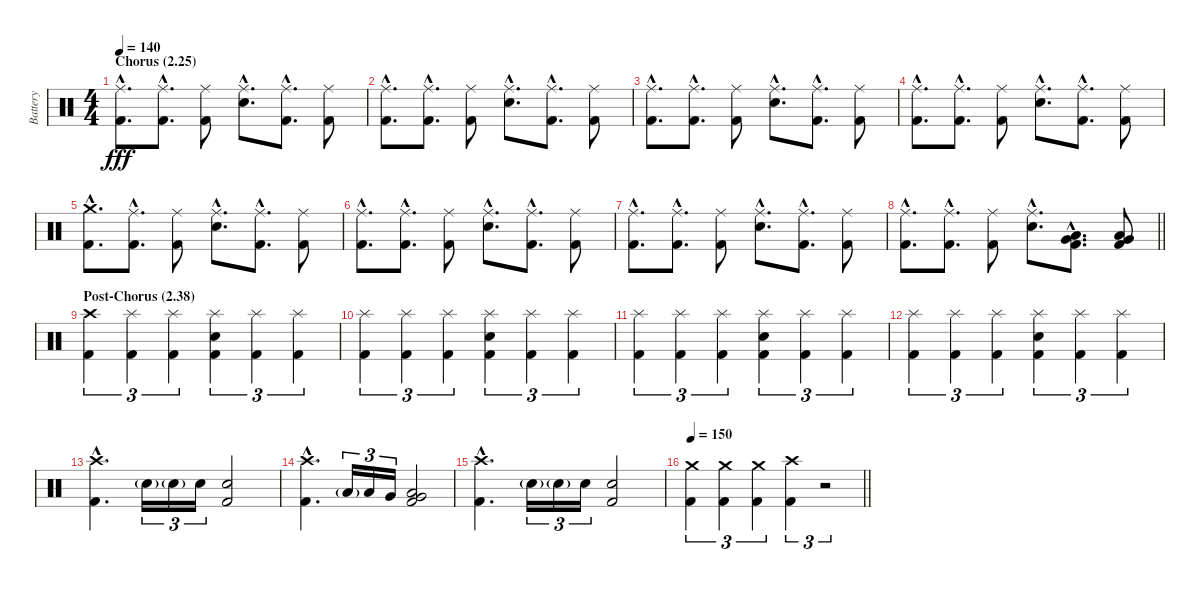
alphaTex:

\track ("Battery" "Battery") {instrument percussion}
\staff {score}
\articulation defaults
\ts (4 4)
\section ("" "Chorus (2.25)")
\tempo 140
\clef neutral
\ks c
("Ride (middle)"{hac} "Kick (hit) 2"{hac}).8{d dy fff} ("Ride (middle)"{hac} "Kick (hit) 2"{hac}).8{d} ("Ride (middle)" "Kick (hit) 2").8 ("Ride (middle)"{hac} "Electric Snare (hit)"{hac}).8{d} ("Ride (middle)"{hac} "Kick (hit) 2"{hac}).8{d} ("Ride (middle)" "Kick (hit) 2").8 |
("Ride (middle)"{hac} "Kick (hit) 2"{hac}).8{d} ("Ride (middle)"{hac} "Kick (hit) 2"{hac}).8{d} ("Ride (middle)" "Kick (hit) 2").8 ("Ride (middle)"{hac} "Electric Snare (hit)"{hac}).8{d} ("Ride (middle)"{hac} "Kick (hit) 2"{hac}).8{d} ("Ride (middle)" "Kick (hit) 2").8 |
("Ride (middle)"{hac} "Kick (hit) 2"{hac}).8{d} ("Ride (middle)"{hac} "Kick (hit) 2"{hac}).8{d} ("Ride (middle)" "Kick (hit) 2").8 ("Ride (middle)"{hac} "Electric Snare (hit)"{hac}).8{d} ("Ride (middle)"{hac} "Kick (hit) 2"{hac}).8{d} ("Ride (middle)" "Kick (hit) 2").8 |
("Ride (middle)"{hac} "Kick (hit) 2"{hac}).8{d} ("Ride (middle)"{hac} "Kick (hit) 2"{hac}).8{d} ("Ride (middle)" "Kick (hit) 2").8 ("Ride (middle)"{hac} "Electric Snare (hit)"{hac}).8{d} ("Ride (middle)"{hac} "Kick (hit) 2"{hac}).8{d} ("Ride (middle)" "Kick (hit) 2").8 |
("Crash medium (hit)"{hac} "Kick (hit) 2"{hac}).8{d} ("Ride (middle)"{hac} "Kick (hit) 2"{hac}).8{d} ("Ride (middle)" "Kick (hit) 2").8 ("Ride (middle)"{hac} "Electric Snare (hit)"{hac}).8{d} ("Ride (middle)"{hac} "Kick (hit) 2"{hac}).8{d} ("Ride (middle)" "Kick (hit) 2").8 |
("Ride (middle)"{hac} "Kick (hit) 2"{hac}).8{d} ("Ride (middle)"{hac} "Kick (hit) 2"{hac}).8{d} ("Ride (middle)" "Kick (hit) 2").8 ("Ride (middle)"{hac} "Electric Snare (hit)"{hac}).8{d} ("Ride (middle)"{hac} "Kick (hit) 2"{hac}).8{d} ("Ride (middle)" "Kick (hit) 2").8 |
("Ride (middle)"{hac} "Kick (hit) 2"{hac}).8{d} ("Ride (middle)"{hac} "Kick (hit) 2"{hac}).8{d} ("Ride (middle)" "Kick (hit) 2").8 ("Ride (middle)"{hac} "Electric Snare (hit)"{hac}).8{d} ("Ride (middle)"{hac} "Kick (hit) 2"{hac}).8{d} ("Ride (middle)" "Kick (hit) 2").8 |
\barLineRight lightlight
("Ride (middle)"{hac} "Kick (hit) 2"{hac}).8{d} ("Ride (middle)"{hac} "Kick (hit) 2"{hac}).8{d} ("Ride (middle)" "Kick (hit) 2").8 ("Ride (middle)"{hac} "Electric Snare (hit)"{hac}).8{d} ("Very Low Tom (hit)"{hac} "Low Floor Tom (hit)"{hac} "Kick (hit) 2"{hac}).8{d} ("Very Low Tom (hit)" "Low Floor Tom (hit)" "Kick (hit) 2").8 |
\section ("" "Post-Chorus (2.38)")
("Crash high (hit)" "Kick (hit) 2").4{tu (3 2)} ("Splash (hit)" "Kick (hit) 2").4{tu (3 2)} ("Splash (hit)" "Kick (hit) 2").4{tu (3 2)} ("Splash (hit)" "Electric Snare (hit)" "Kick (hit) 2").4{tu (3 2)} ("Splash (hit)" "Kick (hit) 2").4{tu (3 2)} ("Splash (hit)" "Kick (hit) 2").4{tu (3 2)} |
("Splash (hit)" "Kick (hit) 2").4{tu (3 2)} ("Splash (hit)" "Kick (hit) 2").4{tu (3 2)} ("Splash (hit)" "Kick (hit) 2").4{tu (3 2)} ("Splash (hit)" "Electric Snare (hit)" "Kick (hit) 2").4{tu (3 2)} ("Splash (hit)" "Kick (hit) 2").4{tu (3 2)} ("Splash (hit)" "Kick (hit) 2").4{tu (3 2)} |
("Splash (hit)" "Kick (hit) 2").4{tu (3 2)} ("Splash (hit)" "Kick (hit) 2").4{tu (3 2)} ("Splash (hit)" "Kick (hit) 2").4{tu (3 2)} ("Splash (hit)" "Electric Snare (hit)" "Kick (hit) 2").4{tu (3 2)} ("Splash (hit)" "Kick (hit) 2").4{tu (3 2)} ("Splash (hit)" "Kick (hit) 2").4{tu (3 2)} |
("Splash (hit)" "Kick (hit) 2").4{tu (3 2)} ("Splash (hit)" "Kick (hit) 2").4{tu (3 2)} ("Splash (hit)" "Kick (hit) 2").4{tu (3 2)} ("Splash (hit)" "Electric Snare (hit)" "Kick (hit) 2").4{tu (3 2)} ("Splash (hit)" "Kick (hit) 2").4{tu (3 2)} ("Splash (hit)" "Kick (hit) 2").4{tu (3 2)} |
("Crash high (hit)"{hac} "Kick (hit) 2"{hac}).4{d} "Electric Snare (hit)"{g}.16{tu (3 2)} "Electric Snare (hit)"{g}.16{tu (3 2)} "Electric Snare (hit)".16{tu (3 2)} ("Electric Snare (hit)" "Kick (hit) 2").2 |
("Crash high (hit)"{hac} "Kick (hit) 2"{hac}).4{d} "Low Tom (hit)"{g}.16{tu (3 2)} "Low Tom (hit)".16{tu (3 2)} "Very Low Tom (hit)".16{tu (3 2)} ("Very Low Tom (hit)" "Low Floor Tom (hit)" "Kick (hit) 2").2 |
("Crash high (hit)"{hac} "Kick (hit) 2"{hac}).4{d} "Electric Snare (hit)"{g}.16{tu (3 2)} "Electric Snare (hit)"{g}.16{tu (3 2)} "Electric Snare (hit)".16{tu (3 2)} ("Electric Snare (hit)" "Kick (hit) 2").2 |
\tempo 150
\barLineRight lightlight
("Crash medium (hit)" "Kick (hit) 2").4{tu (3 2)} ("Crash medium (hit)" "Kick (hit) 2").4{tu (3 2)} ("Crash medium (hit)" "Kick (hit) 2").4{tu (3 2)} ("Crash high (hit)" "Kick (hit) 2").4{tu (3 2)} r.2{tu (3 2)}
